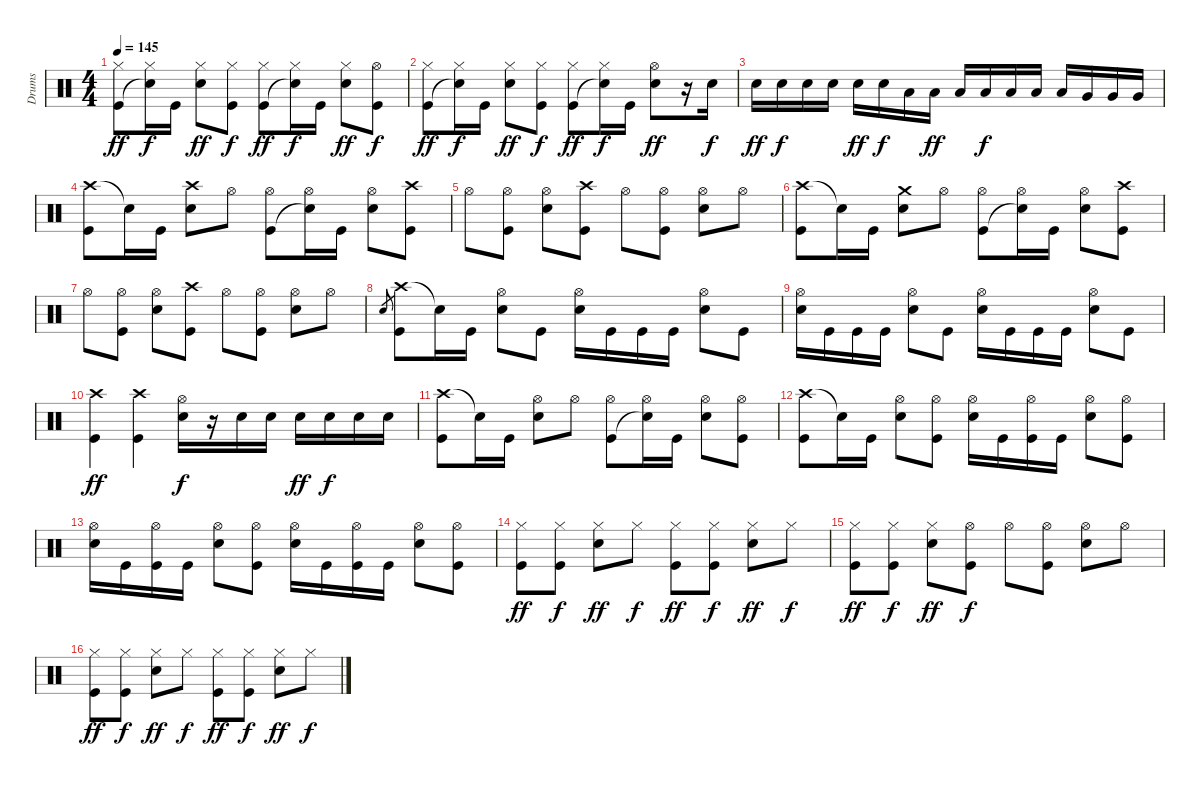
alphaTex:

\track ("Drums" "Drums") {instrument percussion}
\staff {score}
\articulation defaults
\ts (4 4)
\tempo 145
\clef neutral
\ks c
("Hi-Hat (closed)" "Kick (hit)").8{dy ff} ("Hi-Hat (closed)" "Snare (hit) 2"{t}).16{dy f} "Kick (hit)".16 ("Hi-Hat (closed)" "Snare (hit) 2").8{dy ff} ("Hi-Hat (closed)" "Kick (hit)").8{dy f} ("Hi-Hat (closed)" "Kick (hit)").8{dy ff} ("Hi-Hat (closed)" "Snare (hit)"{t}).16{dy f} "Kick (hit)".16 ("Hi-Hat (closed)" "Snare (hit) 2").8{dy ff} ("Hi-Hat (open)" "Kick (hit)").8{dy f} |
("Hi-Hat (closed)" "Kick (hit)").8{dy ff} ("Hi-Hat (closed)" "Snare (hit) 2"{t}).16{dy f} "Kick (hit)".16 ("Hi-Hat (closed)" "Snare (hit) 2").8{dy ff} ("Hi-Hat (closed)" "Kick (hit)").8{dy f} ("Hi-Hat (closed)" "Kick (hit)").8{dy ff} ("Hi-Hat (closed)" "Snare (hit)"{t}).16{dy f} "Kick (hit)".16 ("Hi-Hat (open)" "Snare (hit) 2").8{dy ff} r.16 "Snare (hit) 2".16{dy f} |
"Snare (hit) 2".16{dy ff} "Snare (hit) 2".16{dy f} "Snare (hit) 2".16 "Snare (hit) 2".16 "Snare (hit) 2".16{dy ff} "Snare (hit) 2".16{dy f} "Low Tom (hit)".16 "Low Tom (hit)".16{dy ff} "Low Tom (hit)".16 "Low Tom (hit)".16{dy f} "Low Tom (hit)".16 "Low Tom (hit)".16 "Low Tom (hit)".16 "Very Low Tom (hit)".16 "Very Low Tom (hit)".16 "Very Low Tom (hit)".16 |
("Crash high (hit)" "Kick (hit)").8 "Snare (hit) 2"{t}.16 "Kick (hit)".16 ("Crash high (hit)" "Snare (hit) 2").8 "Hi-Hat (open)".8 ("Hi-Hat (open)" "Kick (hit)").8 ("Hi-Hat (open)" "Snare (hit)"{t}).16 "Kick (hit)".16 ("Hi-Hat (open)" "Snare (hit) 2").8 ("Crash high (hit)" "Kick (hit)").8 |
"Hi-Hat (open)".8 ("Hi-Hat (open)" "Kick (hit)").8 ("Hi-Hat (open)" "Snare (hit) 2").8 ("Crash high (hit)" "Kick (hit)").8 "Hi-Hat (open)".8 ("Hi-Hat (open)" "Kick (hit)").8 ("Hi-Hat (open)" "Snare (hit) 2").8 "Hi-Hat (open)".8 |
("Crash high (hit)" "Kick (hit)").8 "Snare (hit) 2"{t}.16 "Kick (hit)".16 ("Crash medium (hit)" "Snare (hit) 2").8 "Hi-Hat (open)".8 ("Hi-Hat (open)" "Kick (hit)").8 ("Hi-Hat (open)" "Snare (hit)"{t}).16 "Kick (hit)".16 ("Hi-Hat (open)" "Snare (hit) 2").8 ("Crash high (hit)" "Kick (hit)").8 |
"Hi-Hat (open)".8 ("Hi-Hat (open)" "Kick (hit)").8 ("Hi-Hat (open)" "Snare (hit) 2").8 ("Crash high (hit)" "Kick (hit)").8 "Hi-Hat (open)".8 ("Hi-Hat (open)" "Kick (hit)").8 ("Hi-Hat (open)" "Snare (hit) 2").8 "Hi-Hat (open)".8 |
"Snare (hit) 2".8{gr} ("Crash high (hit)" "Kick (hit)").8 "Snare (hit)"{t}.16 "Kick (hit)".16 ("Hi-Hat (open)" "Snare (hit) 2").8 "Kick (hit)".8 ("Hi-Hat (open)" "Snare (hit) 2").16 "Kick (hit)".16 "Kick (hit)".16 "Kick (hit)".16 ("Hi-Hat (open)" "Snare (hit) 2").8 "Kick (hit)".8 |
("Hi-Hat (open)" "Snare (hit) 2").16 "Kick (hit)".16 "Kick (hit)".16 "Kick (hit)".16 ("Hi-Hat (open)" "Snare (hit) 2").8 "Kick (hit)".8 ("Hi-Hat (open)" "Snare (hit) 2").16 "Kick (hit)".16 "Kick (hit)".16 "Kick (hit)".16 ("Hi-Hat (open)" "Snare (hit) 2").8 "Kick (hit)".8 |
("Crash high (hit)" "Kick (hit)").4{dy ff} ("Crash high (hit)" "Kick (hit)").4 ("Hi-Hat (open)" "Snare (hit) 2").16{dy f} r.16 "Snare (hit) 2".16 "Snare (hit) 2".16 "Snare (hit) 2".16{dy ff} "Snare (hit) 2".16{dy f} "Snare (hit) 2".16 "Snare (hit) 2".16 |
("Crash high (hit)" "Kick (hit)").8 "Snare (hit) 2"{t}.16 "Kick (hit)".16 ("Hi-Hat (open)" "Snare (hit) 2").8 "Hi-Hat (open)".8 ("Hi-Hat (open)" "Kick (hit)").8 ("Hi-Hat (open)" "Snare (hit)"{t}).16 "Kick (hit)".16 ("Hi-Hat (open)" "Snare (hit) 2").8 ("Hi-Hat (open)" "Kick (hit)").8 |
("Crash high (hit)" "Kick (hit)").8 "Snare (hit)"{t}.16 "Kick (hit)".16 ("Hi-Hat (open)" "Snare (hit) 2").8 ("Hi-Hat (open)" "Kick (hit)").8 ("Hi-Hat (open)" "Snare (hit) 2").16 "Kick (hit)".16 ("Hi-Hat (open)" "Kick (hit)").16 "Kick (hit)".16 ("Hi-Hat (open)" "Snare (hit) 2").8 ("Hi-Hat (open)" "Kick (hit)").8 |
("Hi-Hat (open)" "Snare (hit) 2").16 "Kick (hit)".16 ("Hi-Hat (open)" "Kick (hit)").16 "Kick (hit)".16 ("Hi-Hat (open)" "Snare (hit) 2").8 ("Hi-Hat (open)" "Kick (hit)").8 ("Hi-Hat (open)" "Snare (hit) 2").16 "Kick (hit)".16 ("Hi-Hat (open)" "Kick (hit)").16 "Kick (hit)".16 ("Hi-Hat (open)" "Snare (hit) 2").8 ("Hi-Hat (open)" "Kick (hit)").8 |
("Hi-Hat (closed)" "Kick (hit)").8{dy ff} ("Hi-Hat (closed)" "Kick (hit)").8{dy f} ("Hi-Hat (closed)" "Snare (hit) 2").8{dy ff} "Hi-Hat (closed)".8{dy f} ("Hi-Hat (closed)" "Kick (hit)").8{dy ff} ("Hi-Hat (closed)" "Kick (hit)").8{dy f} ("Hi-Hat (closed)" "Snare (hit) 2").8{dy ff} "Hi-Hat (closed)".8{dy f} |
("Hi-Hat (closed)" "Kick (hit)").8{dy ff} ("Hi-Hat (closed)" "Kick (hit)").8{dy f} ("Hi-Hat (closed)" "Snare (hit) 2").8{dy ff} ("Hi-Hat (open)" "Kick (hit)").8{dy f} "Hi-Hat (open)".8 ("Hi-Hat (open)" "Kick (hit)").8 ("Hi-Hat (open)" "Snare (hit) 2").8 "Hi-Hat (open)".8 |
("Hi-Hat (closed)" "Kick (hit)").8{dy ff} ("Hi-Hat (closed)" "Kick (hit)").8{dy f} ("Hi-Hat (closed)" "Snare (hit) 2").8{dy ff} "Hi-Hat (closed)".8{dy f} ("Hi-Hat (closed)" "Kick (hit)").8{dy ff} ("Hi-Hat (closed)" "Kick (hit)").8{dy f} ("Hi-Hat (closed)" "Snare (hit) 2").8{dy ff} "Hi-Hat (closed)".8{dy f}
